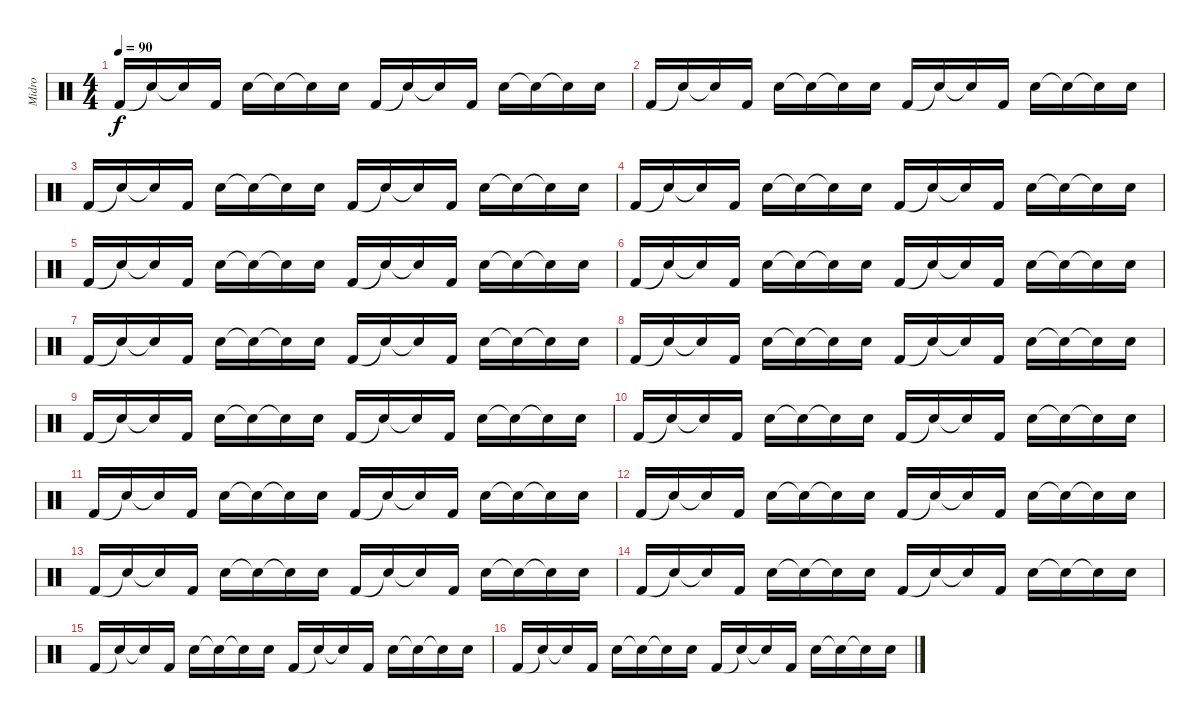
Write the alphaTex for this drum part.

\track ("Midro" "Midro") {instrument percussion}
\staff {score}
\articulation defaults
\ts (4 4)
\tempo 90
\clef neutral
\ks c "Kick (hit) 2".16{dy f} "Snare (hit)"{t}.16 "Snare (hit)"{t}.16 "Kick (hit) 2".16 "Electric Snare (hit)".16 "Snare (hit)"{t}.16 "Electric Snare (hit)"{t}.16 "Electric Snare (hit)".16 "Kick (hit) 2".16 "Snare (hit)"{t}.16 "Snare (hit)"{t}.16 "Kick (hit) 2".16 "Electric Snare (hit)".16 "Snare (hit)"{t}.16 "Snare (hit)"{t}.16 "Electric Snare (hit)".16
|
"Kick (hit) 2".16 "Snare (hit)"{t}.16 "Snare (hit)"{t}.16 "Kick (hit) 2".16 "Electric Snare (hit)".16 "Snare (hit)"{t}.16 "Electric Snare (hit)"{t}.16 "Electric Snare (hit)".16 "Kick (hit) 2".16 "Snare (hit)"{t}.16 "Snare (hit)"{t}.16 "Kick (hit) 2".16 "Electric Snare (hit)".16 "Snare (hit)"{t}.16 "Snare (hit)"{t}.16 "Electric Snare (hit)".16 |
"Kick (hit) 2".16 "Snare (hit)"{t}.16 "Snare (hit)"{t}.16 "Kick (hit) 2".16 "Electric Snare (hit)".16 "Snare (hit)"{t}.16 "Electric Snare (hit)"{t}.16 "Electric Snare (hit)".16 "Kick (hit) 2".16 "Snare (hit)"{t}.16 "Snare (hit)"{t}.16 "Kick (hit) 2".16 "Electric Snare (hit)".16 "Snare (hit)"{t}.16 "Snare (hit)"{t}.16 "Electric Snare (hit)".16 |
"Kick (hit) 2".16 "Snare (hit)"{t}.16 "Snare (hit)"{t}.16 "Kick (hit) 2".16 "Electric Snare (hit)".16 "Snare (hit)"{t}.16 "Electric Snare (hit)"{t}.16 "Electric Snare (hit)".16 "Kick (hit) 2".16 "Snare (hit)"{t}.16 "Snare (hit)"{t}.16 "Kick (hit) 2".16 "Electric Snare (hit)".16 "Snare (hit)"{t}.16 "Snare (hit)"{t}.16 "Electric Snare (hit)".16 |
"Kick (hit) 2".16 "Snare (hit)"{t}.16 "Snare (hit)"{t}.16 "Kick (hit) 2".16 "Electric Snare (hit)".16 "Snare (hit)"{t}.16 "Electric Snare (hit)"{t}.16 "Electric Snare (hit)".16 "Kick (hit) 2".16 "Snare (hit)"{t}.16 "Snare (hit)"{t}.16 "Kick (hit) 2".16 "Electric Snare (hit)".16 "Snare (hit)"{t}.16 "Snare (hit)"{t}.16 "Electric Snare (hit)".16 |
"Kick (hit) 2".16 "Snare (hit)"{t}.16 "Snare (hit)"{t}.16 "Kick (hit) 2".16 "Electric Snare (hit)".16 "Snare (hit)"{t}.16 "Electric Snare (hit)"{t}.16 "Electric Snare (hit)".16 "Kick (hit) 2".16 "Snare (hit)"{t}.16 "Snare (hit)"{t}.16 "Kick (hit) 2".16 "Electric Snare (hit)".16 "Snare (hit)"{t}.16 "Snare (hit)"{t}.16 "Electric Snare (hit)".16 |
"Kick (hit) 2".16 "Snare (hit)"{t}.16 "Snare (hit)"{t}.16 "Kick (hit) 2".16 "Electric Snare (hit)".16 "Snare (hit)"{t}.16 "Electric Snare (hit)"{t}.16 "Electric Snare (hit)".16 "Kick (hit) 2".16 "Snare (hit)"{t}.16 "Snare (hit)"{t}.16 "Kick (hit) 2".16 "Electric Snare (hit)".16 "Snare (hit)"{t}.16 "Snare (hit)"{t}.16 "Electric Snare (hit)".16 |
"Kick (hit) 2".16 "Snare (hit)"{t}.16 "Snare (hit)"{t}.16 "Kick (hit) 2".16 "Electric Snare (hit)".16 "Snare (hit)"{t}.16 "Electric Snare (hit)"{t}.16 "Electric Snare (hit)".16 "Kick (hit) 2".16 "Snare (hit)"{t}.16 "Snare (hit)"{t}.16 "Kick (hit) 2".16 "Electric Snare (hit)".16 "Snare (hit)"{t}.16 "Snare (hit)"{t}.16 "Electric Snare (hit)".16 |
"Kick (hit) 2".16 "Snare (hit)"{t}.16 "Snare (hit)"{t}.16 "Kick (hit) 2".16 "Electric Snare (hit)".16 "Snare (hit)"{t}.16 "Electric Snare (hit)"{t}.16 "Electric Snare (hit)".16 "Kick (hit) 2".16 "Snare (hit)"{t}.16 "Snare (hit)"{t}.16 "Kick (hit) 2".16 "Electric Snare (hit)".16 "Snare (hit)"{t}.16 "Snare (hit)"{t}.16 "Electric Snare (hit)".16 |
"Kick (hit) 2".16 "Snare (hit)"{t}.16 "Snare (hit)"{t}.16 "Kick (hit) 2".16 "Electric Snare (hit)".16 "Snare (hit)"{t}.16 "Electric Snare (hit)"{t}.16 "Electric Snare (hit)".16 "Kick (hit) 2".16 "Snare (hit)"{t}.16 "Snare (hit)"{t}.16 "Kick (hit) 2".16 "Electric Snare (hit)".16 "Snare (hit)"{t}.16 "Snare (hit)"{t}.16 "Electric Snare (hit)".16 |
"Kick (hit) 2".16 "Snare (hit)"{t}.16 "Snare (hit)"{t}.16 "Kick (hit) 2".16 "Electric Snare (hit)".16 "Snare (hit)"{t}.16 "Electric Snare (hit)"{t}.16 "Electric Snare (hit)".16 "Kick (hit) 2".16 "Snare (hit)"{t}.16 "Snare (hit)"{t}.16 "Kick (hit) 2".16 "Electric Snare (hit)".16 "Snare (hit)"{t}.16 "Snare (hit)"{t}.16 "Electric Snare (hit)".16 |
"Kick (hit) 2".16 "Snare (hit)"{t}.16 "Snare (hit)"{t}.16 "Kick (hit) 2".16 "Electric Snare (hit)".16 "Snare (hit)"{t}.16 "Electric Snare (hit)"{t}.16 "Electric Snare (hit)".16 "Kick (hit) 2".16 "Snare (hit)"{t}.16 "Snare (hit)"{t}.16 "Kick (hit) 2".16 "Electric Snare (hit)".16 "Snare (hit)"{t}.16 "Snare (hit)"{t}.16 "Electric Snare (hit)".16 |
"Kick (hit) 2".16 "Snare (hit)"{t}.16 "Snare (hit)"{t}.16 "Kick (hit) 2".16 "Electric Snare (hit)".16 "Snare (hit)"{t}.16 "Electric Snare (hit)"{t}.16 "Electric Snare (hit)".16 "Kick (hit) 2".16 "Snare (hit)"{t}.16 "Snare (hit)"{t}.16 "Kick (hit) 2".16 "Electric Snare (hit)".16 "Snare (hit)"{t}.16 "Snare (hit)"{t}.16 "Electric Snare (hit)".16 |
"Kick (hit) 2".16 "Snare (hit)"{t}.16 "Snare (hit)"{t}.16 "Kick (hit) 2".16 "Electric Snare (hit)".16 "Snare (hit)"{t}.16 "Electric Snare (hit)"{t}.16 "Electric Snare (hit)".16 "Kick (hit) 2".16 "Snare (hit)"{t}.16 "Snare (hit)"{t}.16 "Kick (hit) 2".16 "Electric Snare (hit)".16 "Snare (hit)"{t}.16 "Snare (hit)"{t}.16 "Electric Snare (hit)".16 |
"Kick (hit) 2".16 "Snare (hit)"{t}.16 "Snare (hit)"{t}.16 "Kick (hit) 2".16 "Electric Snare (hit)".16 "Snare (hit)"{t}.16 "Electric Snare (hit)"{t}.16 "Electric Snare (hit)".16 "Kick (hit) 2".16 "Snare (hit)"{t}.16 "Snare (hit)"{t}.16 "Kick (hit) 2".16 "Electric Snare (hit)".16 "Snare (hit)"{t}.16 "Snare (hit)"{t}.16 "Electric Snare (hit)".16 |
"Kick (hit) 2".16 "Snare (hit)"{t}.16 "Snare (hit)"{t}.16 "Kick (hit) 2".16 "Electric Snare (hit)".16 "Snare (hit)"{t}.16 "Electric Snare (hit)"{t}.16 "Electric Snare (hit)".16 "Kick (hit) 2".16 "Snare (hit)"{t}.16 "Snare (hit)"{t}.16 "Kick (hit) 2".16 "Electric Snare (hit)".16 "Snare (hit)"{t}.16 "Snare (hit)"{t}.16 "Electric Snare (hit)".16
